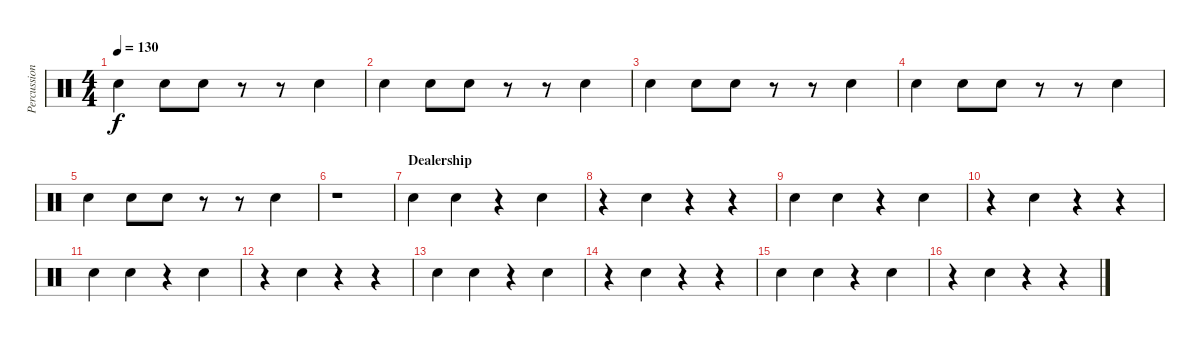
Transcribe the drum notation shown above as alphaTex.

\track ("Percussion" "Percussion") {instrument percussion}
\staff {score}
\articulation defaults
\ts (4 4)
\tempo 130
\clef neutral
\ks c "Electric Snare (hit)".4{dy f} "Electric Snare (hit)".8 "Electric Snare (hit)".8
r.8 r.8 "Electric Snare (hit)".4 |
"Electric Snare (hit)".4 "Electric Snare (hit)".8 "Electric Snare (hit)".8 r.8 r.8 "Electric Snare (hit)".4 |
"Electric Snare (hit)".4 "Electric Snare (hit)".8 "Electric Snare (hit)".8 r.8 r.8 "Electric Snare (hit)".4 |
"Electric Snare (hit)".4 "Electric Snare (hit)".8 "Electric Snare (hit)".8 r.8 r.8 "Electric Snare (hit)".4 |
"Electric Snare (hit)".4 "Electric Snare (hit)".8 "Electric Snare (hit)".8 r.8 r.8 "Electric Snare (hit)".4 |
r.1 |
\section ("" "Dealership")
"Electric Snare (hit)".4 "Electric Snare (hit)".4 r.4 "Electric Snare (hit)".4 |
r.4 "Electric Snare (hit)".4 r.4 r.4 |
"Electric Snare (hit)".4 "Electric Snare (hit)".4 r.4 "Electric Snare (hit)".4 |
r.4 "Electric Snare (hit)".4 r.4 r.4 |
"Electric Snare (hit)".4 "Electric Snare (hit)".4 r.4 "Electric Snare (hit)".4 |
r.4 "Electric Snare (hit)".4 r.4 r.4 |
"Electric Snare (hit)".4 "Electric Snare (hit)".4 r.4 "Electric Snare (hit)".4 |
r.4 "Electric Snare (hit)".4 r.4 r.4 |
"Electric Snare (hit)".4 "Electric Snare (hit)".4 r.4 "Electric Snare (hit)".4 |
r.4 "Electric Snare (hit)".4 r.4 r.4
